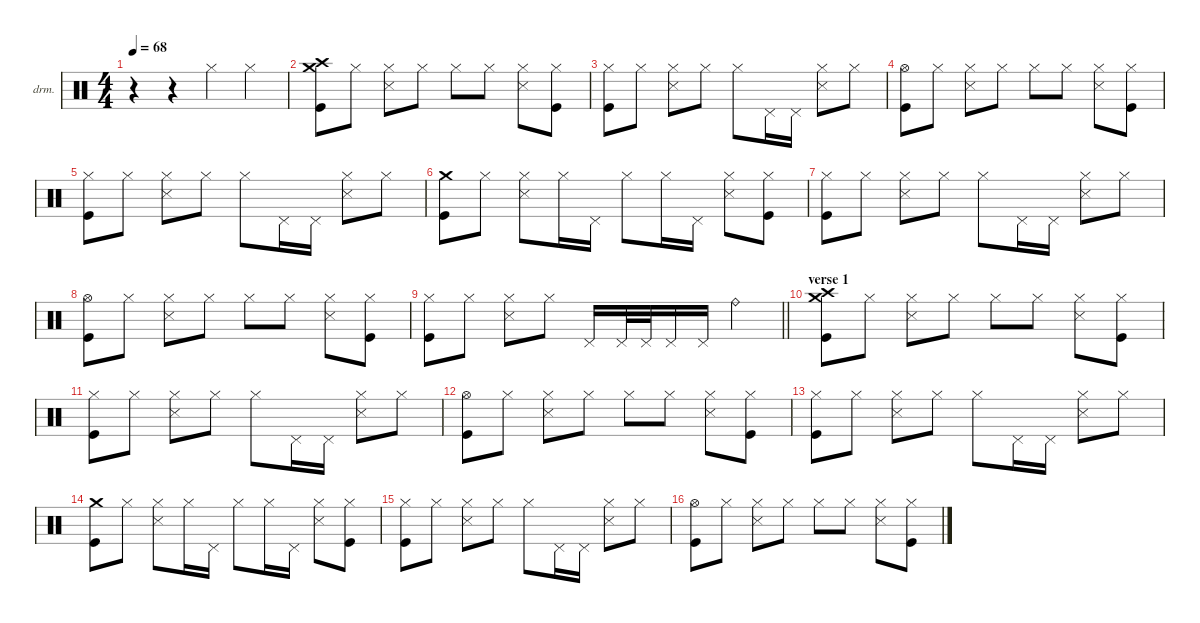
\defaultSystemsLayout 4
\hideDynamics
\bracketExtendMode nobrackets
\firstSystemTrackNameOrientation horizontal
\otherSystemsTrackNameOrientation horizontal
\track ("Drums" "drm.") {instrument percussion}
\staff {score}
\articulation defaults
\ts (4 4)
\beaming (8 2 2 2 2)
\tempo 68
\clef neutral
\ks c
r.4{dy f} r.4 "Hi-Hat (closed)".4 "Hi-Hat (closed)".4 |
("Kick (hit)" "Crash medium (hit)" "Crash high (hit)").8 "Hi-Hat (closed)".8 ("Snare (side stick) 3" "Hi-Hat (closed)").8 "Hi-Hat (closed)".8 "Hi-Hat (closed)".8 "Hi-Hat (closed)".8 ("Snare (side stick) 3" "Hi-Hat (closed)").8 ("Kick (hit)" "Hi-Hat (closed)").8 |
("Kick (hit)" "Hi-Hat (closed)").8 "Hi-Hat (closed)".8 ("Snare (side stick) 3" "Hi-Hat (closed)").8 "Hi-Hat (closed)".8 "Hi-Hat (closed)".8 "Pedal Hi-Hat (hit)".16 "Pedal Hi-Hat (hit)".16 ("Snare (side stick) 3" "Hi-Hat (closed)").8 "Hi-Hat (closed)".8 |
("Kick (hit)" "Hi-Hat (open)").8 "Hi-Hat (closed)".8 ("Snare (side stick) 3" "Hi-Hat (closed)").8 "Hi-Hat (closed)".8 "Hi-Hat (closed)".8 "Hi-Hat (closed)".8 ("Snare (side stick) 3" "Hi-Hat (closed)").8 ("Kick (hit)" "Hi-Hat (closed)").8 |
("Kick (hit)" "Hi-Hat (closed)").8 "Hi-Hat (closed)".8 ("Snare (side stick) 3" "Hi-Hat (closed)").8 "Hi-Hat (closed)".8 "Hi-Hat (closed)".8 "Pedal Hi-Hat (hit)".16 "Pedal Hi-Hat (hit)".16 ("Snare (side stick) 3" "Hi-Hat (closed)").8 "Hi-Hat (closed)".8 |
("Kick (hit)" "Crash medium (hit)").8 "Hi-Hat (closed)".8 ("Snare (side stick) 3" "Hi-Hat (closed)").8 "Hi-Hat (closed)".16 "Pedal Hi-Hat (hit)".16 "Hi-Hat (closed)".8 "Hi-Hat (closed)".16 "Pedal Hi-Hat (hit)".16 ("Snare (side stick) 3" "Hi-Hat (closed)").8 ("Kick (hit)" "Hi-Hat (closed)").8 |
("Kick (hit)" "Hi-Hat (closed)").8 "Hi-Hat (closed)".8 ("Snare (side stick) 3" "Hi-Hat (closed)").8 "Hi-Hat (closed)".8 "Hi-Hat (closed)".8 "Pedal Hi-Hat (hit)".16 "Pedal Hi-Hat (hit)".16 ("Snare (side stick) 3" "Hi-Hat (closed)").8 "Hi-Hat (closed)".8 |
("Kick (hit)" "Hi-Hat (open)").8 "Hi-Hat (closed)".8 ("Snare (side stick) 3" "Hi-Hat (closed)").8 "Hi-Hat (closed)".8 "Hi-Hat (closed)".8 "Hi-Hat (closed)".8 ("Snare (side stick) 3" "Hi-Hat (closed)").8 ("Kick (hit)" "Hi-Hat (closed)").8 |
\barLineRight lightlight
("Kick (hit)" "Hi-Hat (closed)").8 "Hi-Hat (closed)".8 ("Snare (side stick) 3" "Hi-Hat (closed)").8 "Hi-Hat (closed)".8 "Pedal Hi-Hat (hit)".16 "Pedal Hi-Hat (hit)".32 "Pedal Hi-Hat (hit)".32 "Pedal Hi-Hat (hit)".16 "Pedal Hi-Hat (hit)".16 "Ride (bell)".4 |
\section ("" "verse 1")
("Kick (hit)" "Crash medium (hit)" "Crash high (hit)").8 "Hi-Hat (closed)".8 ("Snare (side stick) 3" "Hi-Hat (closed)").8 "Hi-Hat (closed)".8 "Hi-Hat (closed)".8 "Hi-Hat (closed)".8 ("Snare (side stick) 3" "Hi-Hat (closed)").8 ("Kick (hit)" "Hi-Hat (closed)").8 |
("Kick (hit)" "Hi-Hat (closed)").8 "Hi-Hat (closed)".8 ("Snare (side stick) 3" "Hi-Hat (closed)").8 "Hi-Hat (closed)".8 "Hi-Hat (closed)".8 "Pedal Hi-Hat (hit)".16 "Pedal Hi-Hat (hit)".16 ("Snare (side stick) 3" "Hi-Hat (closed)").8 "Hi-Hat (closed)".8 |
("Kick (hit)" "Hi-Hat (open)").8 "Hi-Hat (closed)".8 ("Snare (side stick) 3" "Hi-Hat (closed)").8 "Hi-Hat (closed)".8 "Hi-Hat (closed)".8 "Hi-Hat (closed)".8 ("Snare (side stick) 3" "Hi-Hat (closed)").8 ("Kick (hit)" "Hi-Hat (closed)").8 |
("Kick (hit)" "Hi-Hat (closed)").8 "Hi-Hat (closed)".8 ("Snare (side stick) 3" "Hi-Hat (closed)").8 "Hi-Hat (closed)".8 "Hi-Hat (closed)".8 "Pedal Hi-Hat (hit)".16 "Pedal Hi-Hat (hit)".16 ("Snare (side stick) 3" "Hi-Hat (closed)").8 "Hi-Hat (closed)".8 |
("Kick (hit)" "Crash medium (hit)").8 "Hi-Hat (closed)".8 ("Snare (side stick) 3" "Hi-Hat (closed)").8 "Hi-Hat (closed)".16 "Pedal Hi-Hat (hit)".16 "Hi-Hat (closed)".8 "Hi-Hat (closed)".16 "Pedal Hi-Hat (hit)".16 ("Snare (side stick) 3" "Hi-Hat (closed)").8 ("Kick (hit)" "Hi-Hat (closed)").8 |
("Kick (hit)" "Hi-Hat (closed)").8 "Hi-Hat (closed)".8 ("Snare (side stick) 3" "Hi-Hat (closed)").8 "Hi-Hat (closed)".8 "Hi-Hat (closed)".8 "Pedal Hi-Hat (hit)".16 "Pedal Hi-Hat (hit)".16 ("Snare (side stick) 3" "Hi-Hat (closed)").8 "Hi-Hat (closed)".8 |
("Kick (hit)" "Hi-Hat (open)").8 "Hi-Hat (closed)".8 ("Snare (side stick) 3" "Hi-Hat (closed)").8 "Hi-Hat (closed)".8 "Hi-Hat (closed)".8 "Hi-Hat (closed)".8 ("Snare (side stick) 3" "Hi-Hat (closed)").8 ("Kick (hit)" "Hi-Hat (closed)").8
